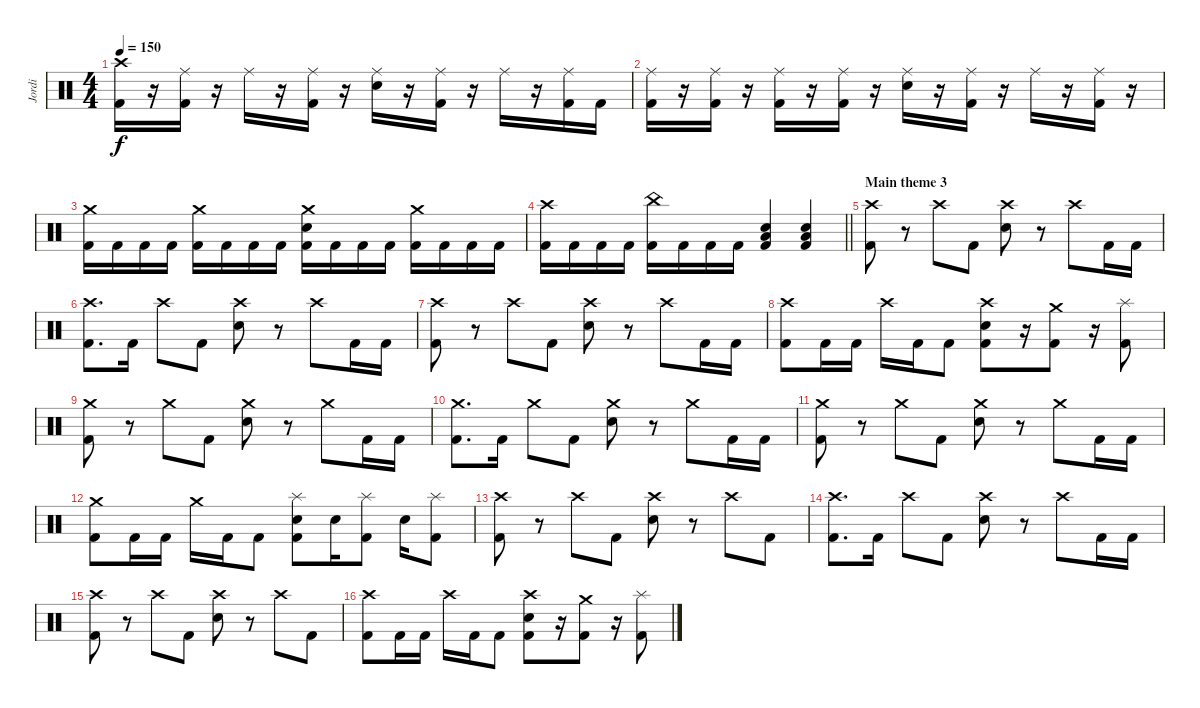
\track ("Jordi" "Jordi") {instrument percussion}
\staff {score}
\articulation defaults
\ts (4 4)
\tempo 150
\clef neutral
\ks c
("Crash high (hit)" "Kick (hit) 2").16{dy f} r.16 ("Ride (middle)" "Kick (hit) 2").16 r.16 "Ride (middle)".16 r.16 ("Ride (middle)" "Kick (hit) 2").16 r.16 ("Ride (middle)" "Snare (hit) 2").16 r.16 ("Ride (middle)" "Kick (hit) 2").16 r.16 "Ride (middle)".16 r.16 ("Ride (middle)" "Kick (hit) 2").16 "Kick (hit) 2".16 |
("Ride (middle)" "Kick (hit) 2").16 r.16 ("Ride (middle)" "Kick (hit) 2").16 r.16 ("Ride (middle)" "Kick (hit) 2").16 r.16 ("Ride (middle)" "Kick (hit) 2").16 r.16 ("Ride (middle)" "Snare (hit) 2").16 r.16 ("Ride (middle)" "Kick (hit) 2").16 r.16 "Ride (middle)".16 r.16 ("Ride (middle)" "Kick (hit) 2").16 r.16 |
("Crash medium (hit)" "Kick (hit) 2").16 "Kick (hit) 2".16 "Kick (hit) 2".16 "Kick (hit) 2".16 ("Crash medium (hit)" "Kick (hit) 2").16 "Kick (hit) 2".16 "Kick (hit) 2".16 "Kick (hit) 2".16 ("Crash medium (hit)" "Snare (hit) 2" "Kick (hit) 2").16 "Kick (hit) 2".16 "Kick (hit) 2".16 "Kick (hit) 2".16 ("Crash medium (hit)" "Kick (hit) 2").16 "Kick (hit) 2".16 "Kick (hit) 2".16 "Kick (hit) 2".16 |
\barLineRight lightlight
("Crash high (hit)" "Kick (hit) 2").16 "Kick (hit) 2".16 "Kick (hit) 2".16 "Kick (hit) 2".16 ("China (hit)" "Kick (hit) 2").16 "Kick (hit) 2".16 "Kick (hit) 2".16 "Kick (hit) 2".16 ("Low Tom (hit)" "Snare (hit) 2" "Kick (hit) 2").4 ("Low Tom (hit)" "Snare (hit) 2" "Kick (hit) 2").4 |
\section ("" "Main theme 3")
("Crash high (hit)" "Kick (hit) 2").8 r.8 "Crash high (hit)".8 "Kick (hit) 2".8 ("Crash high (hit)" "Snare (hit) 2").8 r.8 "Crash high (hit)".8 "Kick (hit) 2".16 "Kick (hit) 2".16 |
("Crash high (hit)" "Kick (hit) 2").8{d} "Kick (hit) 2".16 "Crash high (hit)".8 "Kick (hit) 2".8 ("Crash high (hit)" "Snare (hit) 2").8 r.8 "Crash high (hit)".8 "Kick (hit) 2".16 "Kick (hit) 2".16 |
("Crash high (hit)" "Kick (hit) 2").8 r.8 "Crash high (hit)".8 "Kick (hit) 2".8 ("Crash high (hit)" "Snare (hit) 2").8 r.8 "Crash high (hit)".8 "Kick (hit) 2".16 "Kick (hit) 2".16 |
("Crash high (hit)" "Kick (hit) 2").8 "Kick (hit) 2".16 "Kick (hit) 2".16 "Crash high (hit)".16 "Kick (hit) 2".16 "Kick (hit) 2".8 ("Crash high (hit)" "Snare (hit) 2" "Kick (hit) 2").8 r.16 ("Crash medium (hit)" "Kick (hit) 2").8 r.16 ("Splash (hit)" "Kick (hit) 2").8 |
("Crash medium (hit)" "Kick (hit) 2").8 r.8 "Crash medium (hit)".8 "Kick (hit) 2".8 ("Crash medium (hit)" "Snare (hit) 2").8 r.8 "Crash medium (hit)".8 "Kick (hit) 2".16 "Kick (hit) 2".16 |
("Crash medium (hit)" "Kick (hit) 2").8{d} "Kick (hit) 2".16 "Crash medium (hit)".8 "Kick (hit) 2".8 ("Crash medium (hit)" "Snare (hit) 2").8 r.8 "Crash medium (hit)".8 "Kick (hit) 2".16 "Kick (hit) 2".16 |
("Crash medium (hit)" "Kick (hit) 2").8 r.8 "Crash medium (hit)".8 "Kick (hit) 2".8 ("Crash medium (hit)" "Snare (hit) 2").8 r.8 "Crash medium (hit)".8 "Kick (hit) 2".16 "Kick (hit) 2".16 |
("Crash medium (hit)" "Kick (hit) 2").8 "Kick (hit) 2".16 "Kick (hit) 2".16 "Crash medium (hit)".16 "Kick (hit) 2".16 "Kick (hit) 2".8 ("Splash (hit)" "Snare (hit) 2" "Kick (hit) 2").8 "Snare (hit) 2".16 ("Splash (hit)" "Kick (hit) 2").8 "Snare (hit) 2".16 ("Splash (hit)" "Kick (hit) 2").8 |
("Crash high (hit)" "Kick (hit) 2").8 r.8 "Crash high (hit)".8 "Kick (hit) 2".8 ("Crash high (hit)" "Snare (hit) 2").8 r.8 "Crash high (hit)".8 "Kick (hit) 2".8 |
("Crash high (hit)" "Kick (hit) 2").8{d} "Kick (hit) 2".16 "Crash high (hit)".8 "Kick (hit) 2".8 ("Crash high (hit)" "Snare (hit) 2").8 r.8 "Crash high (hit)".8 "Kick (hit) 2".16 "Kick (hit) 2".16 |
("Crash high (hit)" "Kick (hit) 2").8 r.8 "Crash high (hit)".8 "Kick (hit) 2".8 ("Crash high (hit)" "Snare (hit) 2").8 r.8 "Crash high (hit)".8 "Kick (hit) 2".8 |
("Crash high (hit)" "Kick (hit) 2").8 "Kick (hit) 2".16 "Kick (hit) 2".16 "Crash high (hit)".16 "Kick (hit) 2".16 "Kick (hit) 2".8 ("Crash high (hit)" "Snare (hit) 2" "Kick (hit) 2").8 r.16 ("Crash medium (hit)" "Kick (hit) 2").8 r.16 ("Splash (hit)" "Kick (hit) 2").8
